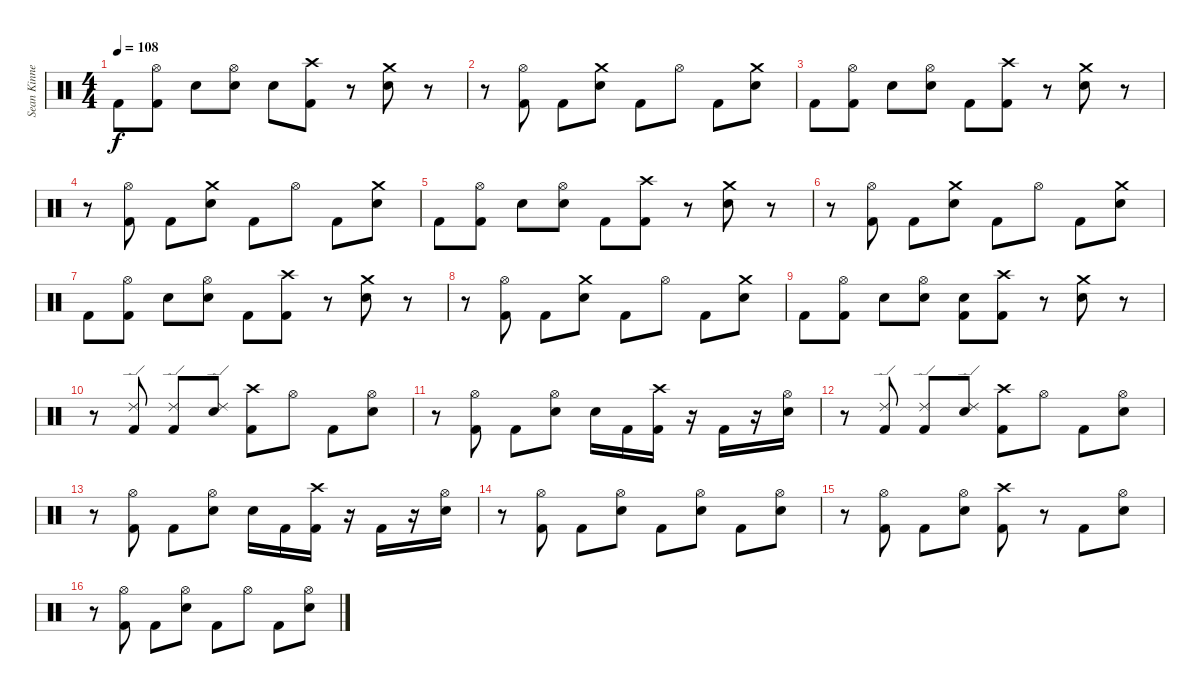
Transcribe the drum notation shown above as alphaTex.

\track ("Sean Kinney" "Sean Kinne") {instrument percussion}
\staff {score}
\articulation defaults
\ts (4 4)
\tempo 108
\clef neutral
\ks c "Kick (hit) 2".8{dy f}
("Hi-Hat (open)" "Kick (hit) 2").8 "Electric Snare (hit)".8 ("Hi-Hat (open)" "Electric Snare (hit)").8 "Electric Snare (hit)".8 ("Crash high (hit)" "Kick (hit) 2").8 r.8 ("Crash medium (hit)" "Electric Snare (hit)").8 r.8 |
r.8 ("Hi-Hat (open)" "Kick (hit) 2").8 "Kick (hit) 2".8 ("Crash medium (hit)" "Electric Snare (hit)").8 "Kick (hit) 2".8 "Hi-Hat (open)".8 "Kick (hit) 2".8 ("Crash medium (hit)" "Electric Snare (hit)").8 |
"Kick (hit) 2".8 ("Hi-Hat (open)" "Kick (hit) 2").8 "Electric Snare (hit)".8 ("Hi-Hat (open)" "Electric Snare (hit)").8 "Kick (hit) 2".8 ("Crash high (hit)" "Kick (hit) 2").8 r.8 ("Crash medium (hit)" "Electric Snare (hit)").8 r.8 |
r.8 ("Hi-Hat (open)" "Kick (hit) 2").8 "Kick (hit) 2".8 ("Crash medium (hit)" "Electric Snare (hit)").8 "Kick (hit) 2".8 "Hi-Hat (open)".8 "Kick (hit) 2".8 ("Crash medium (hit)" "Electric Snare (hit)").8 |
"Kick (hit) 2".8 ("Hi-Hat (open)" "Kick (hit) 2").8 "Electric Snare (hit)".8 ("Hi-Hat (open)" "Electric Snare (hit)").8 "Kick (hit) 2".8 ("Crash high (hit)" "Kick (hit) 2").8 r.8 ("Crash medium (hit)" "Electric Snare (hit)").8 r.8 |
r.8 ("Hi-Hat (open)" "Kick (hit) 2").8 "Kick (hit) 2".8 ("Crash medium (hit)" "Electric Snare (hit)").8 "Kick (hit) 2".8 "Hi-Hat (open)".8 "Kick (hit) 2".8 ("Crash medium (hit)" "Electric Snare (hit)").8 |
"Kick (hit) 2".8 ("Hi-Hat (open)" "Kick (hit) 2").8 "Electric Snare (hit)".8 ("Hi-Hat (open)" "Electric Snare (hit)").8 "Kick (hit) 2".8 ("Crash high (hit)" "Kick (hit) 2").8 r.8 ("Crash medium (hit)" "Electric Snare (hit)").8 r.8 |
r.8 ("Hi-Hat (open)" "Kick (hit) 2").8 "Kick (hit) 2".8 ("Crash medium (hit)" "Electric Snare (hit)").8 "Kick (hit) 2".8 "Hi-Hat (open)".8 "Kick (hit) 2".8 ("Crash medium (hit)" "Electric Snare (hit)").8 |
"Kick (hit) 2".8 ("Hi-Hat (open)" "Kick (hit) 2").8 "Electric Snare (hit)".8 ("Hi-Hat (open)" "Electric Snare (hit)").8 ("Electric Snare (hit)" "Kick (hit) 2").8 ("Crash high (hit)" "Kick (hit) 2").8 r.8 ("Crash medium (hit)" "Electric Snare (hit)").8 r.8 |
r.8 ("Ride (edge) 2" "Kick (hit) 2").8 ("Ride (edge) 2" "Kick (hit) 2").8 ("Ride (edge) 2" "Electric Snare (hit)").8 ("Crash high (hit)" "Kick (hit) 2").8 "Hi-Hat (open)".8 "Kick (hit) 2".8 ("Hi-Hat (open)" "Electric Snare (hit)").8 |
r.8 ("Hi-Hat (open)" "Kick (hit) 2").8 "Kick (hit) 2".8 ("Hi-Hat (open)" "Electric Snare (hit)").8 "Electric Snare (hit)".16 "Kick (hit) 2".16 ("Crash high (hit)" "Kick (hit) 2").16 r.16 "Kick (hit) 2".16 r.16 ("Hi-Hat (open)" "Electric Snare (hit)").16 |
r.8 ("Ride (edge) 2" "Kick (hit) 2").8 ("Ride (edge) 2" "Kick (hit) 2").8 ("Ride (edge) 2" "Electric Snare (hit)").8 ("Crash high (hit)" "Kick (hit) 2").8 "Hi-Hat (open)".8 "Kick (hit) 2".8 ("Hi-Hat (open)" "Electric Snare (hit)").8 |
r.8 ("Hi-Hat (open)" "Kick (hit) 2").8 "Kick (hit) 2".8 ("Hi-Hat (open)" "Electric Snare (hit)").8 "Electric Snare (hit)".16 "Kick (hit) 2".16 ("Crash high (hit)" "Kick (hit) 2").16 r.16 "Kick (hit) 2".16 r.16 ("Hi-Hat (open)" "Electric Snare (hit)").16 |
r.8 ("Hi-Hat (open)" "Kick (hit) 2").8 "Kick (hit) 2".8 ("Hi-Hat (open)" "Electric Snare (hit)").8 "Kick (hit) 2".8 ("Hi-Hat (open)" "Electric Snare (hit)").8 "Kick (hit) 2".8 ("Hi-Hat (open)" "Electric Snare (hit)").8 |
r.8 ("Hi-Hat (open)" "Kick (hit) 2").8 "Kick (hit) 2".8 ("Hi-Hat (open)" "Electric Snare (hit)").8 ("Crash high (hit)" "Kick (hit) 2").8 r.8 "Kick (hit) 2".8 ("Hi-Hat (open)" "Electric Snare (hit)").8 |
r.8 ("Hi-Hat (open)" "Kick (hit) 2").8 "Kick (hit) 2".8 ("Hi-Hat (open)" "Electric Snare (hit)").8 "Kick (hit) 2".8 "Hi-Hat (open)".8 "Kick (hit) 2".8 ("Hi-Hat (open)" "Electric Snare (hit)").8
